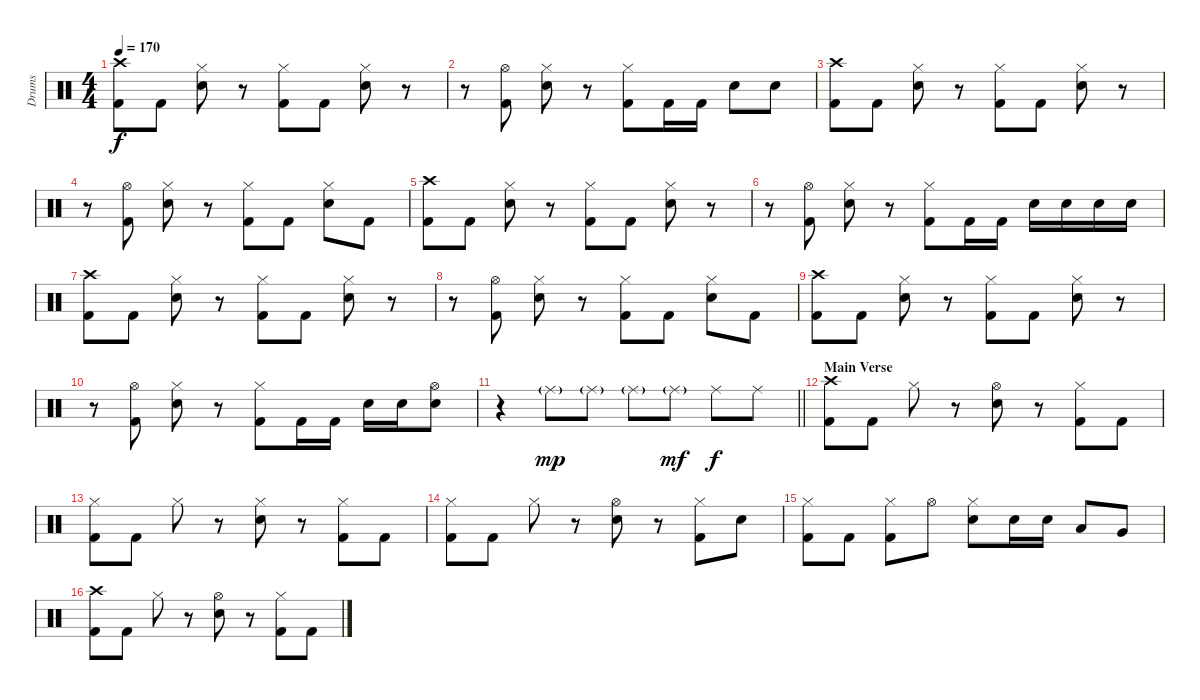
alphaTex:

\track ("Drums" "Drums") {instrument percussion}
\staff {score}
\articulation defaults
\ts (4 4)
\tempo 170
\clef neutral
\ks c
("Crash high (hit)" "Kick (hit) 2").8{dy f} "Kick (hit) 2".8 ("Snare (hit) 2" "Hi-Hat (closed)").8 r.8 ("Hi-Hat (closed)" "Kick (hit) 2").8 "Kick (hit) 2".8 ("Snare (hit) 2" "Hi-Hat (closed)").8 r.8 |
r.8 ("Hi-Hat (open)" "Kick (hit) 2").8 ("Snare (hit) 2" "Hi-Hat (closed)").8 r.8 ("Hi-Hat (closed)" "Kick (hit) 2").8 "Kick (hit) 2".16 "Kick (hit) 2".16 "Snare (hit) 2".8 "Snare (hit) 2".8 |
("Crash high (hit)" "Kick (hit) 2").8 "Kick (hit) 2".8 ("Snare (hit) 2" "Hi-Hat (closed)").8 r.8 ("Hi-Hat (closed)" "Kick (hit) 2").8 "Kick (hit) 2".8 ("Snare (hit) 2" "Hi-Hat (closed)").8 r.8 |
r.8 ("Hi-Hat (open)" "Kick (hit) 2").8 ("Snare (hit) 2" "Hi-Hat (closed)").8 r.8 ("Hi-Hat (closed)" "Kick (hit) 2").8 "Kick (hit) 2".8 ("Snare (hit) 2" "Hi-Hat (closed)").8 "Kick (hit) 2".8 |
("Crash high (hit)" "Kick (hit) 2").8 "Kick (hit) 2".8 ("Snare (hit) 2" "Hi-Hat (closed)").8 r.8 ("Hi-Hat (closed)" "Kick (hit) 2").8 "Kick (hit) 2".8 ("Snare (hit) 2" "Hi-Hat (closed)").8 r.8 |
r.8 ("Hi-Hat (open)" "Kick (hit) 2").8 ("Snare (hit) 2" "Hi-Hat (closed)").8 r.8 ("Hi-Hat (closed)" "Kick (hit) 2").8 "Kick (hit) 2".16 "Kick (hit) 2".16 "Snare (hit) 2".16 "Snare (hit) 2".16 "Snare (hit) 2".16 "Snare (hit) 2".16 |
("Crash high (hit)" "Kick (hit) 2").8 "Kick (hit) 2".8 ("Snare (hit) 2" "Hi-Hat (closed)").8 r.8 ("Hi-Hat (closed)" "Kick (hit) 2").8 "Kick (hit) 2".8 ("Snare (hit) 2" "Hi-Hat (closed)").8 r.8 |
r.8 ("Hi-Hat (open)" "Kick (hit) 2").8 ("Snare (hit) 2" "Hi-Hat (closed)").8 r.8 ("Hi-Hat (closed)" "Kick (hit) 2").8 "Kick (hit) 2".8 ("Snare (hit) 2" "Hi-Hat (closed)").8 "Kick (hit) 2".8 |
("Crash high (hit)" "Kick (hit) 2").8 "Kick (hit) 2".8 ("Snare (hit) 2" "Hi-Hat (closed)").8 r.8 ("Hi-Hat (closed)" "Kick (hit) 2").8 "Kick (hit) 2".8 ("Snare (hit) 2" "Hi-Hat (closed)").8 r.8 |
r.8 ("Hi-Hat (open)" "Kick (hit) 2").8 ("Snare (hit) 2" "Hi-Hat (closed)").8 r.8 ("Hi-Hat (closed)" "Kick (hit) 2").8 "Kick (hit) 2".16 "Kick (hit) 2".16 "Snare (hit) 2".16 "Snare (hit) 2".16 ("Snare (hit) 2" "Hi-Hat (open)").8 |
\barLineRight lightlight
r.4 "Ride (middle)"{g}.8{dy mp} "Ride (middle)"{g}.8 "Ride (middle)"{g}.8 "Ride (middle)"{g}.8{dy mf} "Ride (middle)".8{dy f} "Ride (middle)".8 |
\section ("" "Main Verse")
("Crash high (hit)" "Kick (hit) 2").8 "Kick (hit) 2".8 "Hi-Hat (closed)".8 r.8 ("Snare (hit) 2" "Hi-Hat (open)").8 r.8 ("Hi-Hat (closed)" "Kick (hit) 2").8 "Kick (hit) 2".8 |
("Hi-Hat (closed)" "Kick (hit) 2").8 "Kick (hit) 2".8 "Hi-Hat (closed)".8 r.8 ("Snare (hit) 2" "Hi-Hat (closed)").8 r.8 ("Hi-Hat (closed)" "Kick (hit) 2").8 "Kick (hit) 2".8 |
("Hi-Hat (closed)" "Kick (hit) 2").8 "Kick (hit) 2".8 "Hi-Hat (closed)".8 r.8 ("Snare (hit) 2" "Hi-Hat (open)").8 r.8 ("Hi-Hat (closed)" "Kick (hit) 2").8 "Snare (hit) 2".8 |
("Hi-Hat (closed)" "Kick (hit) 2").8 "Kick (hit) 2".8 ("Hi-Hat (closed)" "Kick (hit) 2").8 "Hi-Hat (open)".8 ("Snare (hit) 2" "Hi-Hat (closed)").8 "Snare (hit) 2".16 "Snare (hit) 2".16 "Low Tom (hit)".8 "Very Low Tom (hit)".8 |
("Crash high (hit)" "Kick (hit) 2").8 "Kick (hit) 2".8 "Hi-Hat (closed)".8 r.8 ("Snare (hit) 2" "Hi-Hat (open)").8 r.8 ("Hi-Hat (closed)" "Kick (hit) 2").8 "Kick (hit) 2".8
